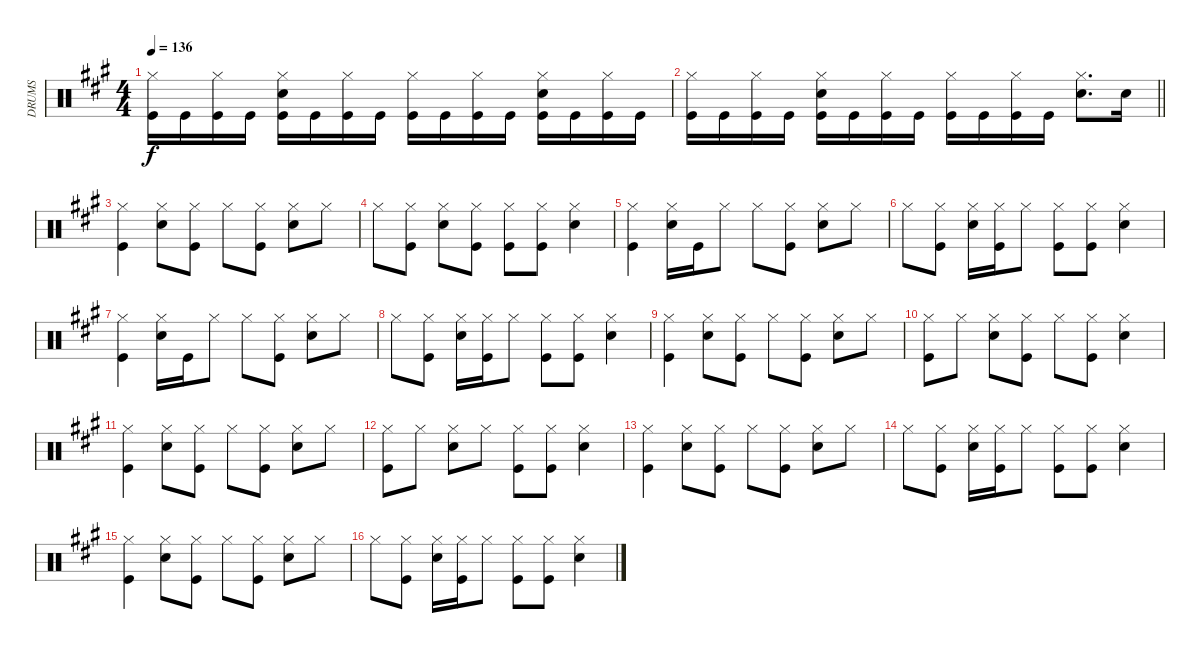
\track ("DRUMS" "DRUMS") {instrument percussion}
\staff {score}
\articulation defaults
\ts (4 4)
\tempo 136
\clef neutral
\ks f#minor
("Hi-Hat (closed)" "Kick (hit)").16{dy f} "Kick (hit)".16 ("Hi-Hat (closed)" "Kick (hit)").16 "Kick (hit)".16 ("Hi-Hat (closed)" "Kick (hit)" "Snare (hit) 2").16 "Kick (hit)".16 ("Hi-Hat (closed)" "Kick (hit)").16 "Kick (hit)".16 ("Hi-Hat (closed)" "Kick (hit)").16 "Kick (hit)".16 ("Hi-Hat (closed)" "Kick (hit)").16 "Kick (hit)".16 ("Hi-Hat (closed)" "Kick (hit)" "Snare (hit) 2").16 "Kick (hit)".16 ("Hi-Hat (closed)" "Kick (hit)").16 "Kick (hit)".16 |
\barLineRight lightlight
("Hi-Hat (closed)" "Kick (hit)").16 "Kick (hit)".16 ("Hi-Hat (closed)" "Kick (hit)").16 "Kick (hit)".16 ("Hi-Hat (closed)" "Kick (hit)" "Snare (hit) 2").16 "Kick (hit)".16 ("Hi-Hat (closed)" "Kick (hit)").16 "Kick (hit)".16 ("Hi-Hat (closed)" "Kick (hit)").16 "Kick (hit)".16 ("Hi-Hat (closed)" "Kick (hit)").16 "Kick (hit)".16 ("Hi-Hat (closed)" "Snare (hit) 2").8{d} "Snare (hit) 2".16 |
("Hi-Hat (closed)" "Kick (hit)").4 ("Hi-Hat (closed)" "Snare (hit) 2").8 ("Hi-Hat (closed)" "Kick (hit)").8 "Hi-Hat (closed)".8 ("Hi-Hat (closed)" "Kick (hit)").8 ("Hi-Hat (closed)" "Snare (hit) 2").8 "Hi-Hat (closed)".8 |
"Hi-Hat (closed)".8 ("Hi-Hat (closed)" "Kick (hit)").8 ("Hi-Hat (closed)" "Snare (hit) 2").8 ("Hi-Hat (closed)" "Kick (hit)").8 ("Hi-Hat (closed)" "Kick (hit)").8 ("Hi-Hat (closed)" "Kick (hit)").8 ("Hi-Hat (closed)" "Snare (hit) 2").4 |
("Hi-Hat (closed)" "Kick (hit)").4 ("Hi-Hat (closed)" "Snare (hit) 2").16 "Kick (hit)".16 "Hi-Hat (closed)".8 "Hi-Hat (closed)".8 ("Hi-Hat (closed)" "Kick (hit)").8 ("Hi-Hat (closed)" "Snare (hit) 2").8 "Hi-Hat (closed)".8 |
"Hi-Hat (closed)".8 ("Hi-Hat (closed)" "Kick (hit)").8 ("Hi-Hat (closed)" "Snare (hit) 2").16 ("Hi-Hat (closed)" "Kick (hit)").16 "Hi-Hat (closed)".8 ("Hi-Hat (closed)" "Kick (hit)").8 ("Hi-Hat (closed)" "Kick (hit)").8 ("Hi-Hat (closed)" "Snare (hit) 2").4 |
("Hi-Hat (closed)" "Kick (hit)").4 ("Hi-Hat (closed)" "Snare (hit) 2").16 "Kick (hit)".16 "Hi-Hat (closed)".8 "Hi-Hat (closed)".8 ("Hi-Hat (closed)" "Kick (hit)").8 ("Hi-Hat (closed)" "Snare (hit) 2").8 "Hi-Hat (closed)".8 |
"Hi-Hat (closed)".8 ("Hi-Hat (closed)" "Kick (hit)").8 ("Hi-Hat (closed)" "Snare (hit) 2").16 ("Hi-Hat (closed)" "Kick (hit)").16 "Hi-Hat (closed)".8 ("Hi-Hat (closed)" "Kick (hit)").8 ("Hi-Hat (closed)" "Kick (hit)").8 ("Hi-Hat (closed)" "Snare (hit) 2").4 |
("Hi-Hat (closed)" "Kick (hit)").4 ("Hi-Hat (closed)" "Snare (hit) 2").8 ("Hi-Hat (closed)" "Kick (hit)").8 "Hi-Hat (closed)".8 ("Hi-Hat (closed)" "Kick (hit)").8 ("Hi-Hat (closed)" "Snare (hit) 2").8 "Hi-Hat (closed)".8 |
("Hi-Hat (closed)" "Kick (hit)").8 "Hi-Hat (closed)".8 ("Hi-Hat (closed)" "Snare (hit) 2").8 ("Hi-Hat (closed)" "Kick (hit)").8 "Hi-Hat (closed)".8 ("Hi-Hat (closed)" "Kick (hit)").8 ("Hi-Hat (closed)" "Snare (hit) 2").4 |
("Hi-Hat (closed)" "Kick (hit)").4 ("Hi-Hat (closed)" "Snare (hit) 2").8 ("Hi-Hat (closed)" "Kick (hit)").8 "Hi-Hat (closed)".8 ("Hi-Hat (closed)" "Kick (hit)").8 ("Hi-Hat (closed)" "Snare (hit) 2").8 "Hi-Hat (closed)".8 |
("Hi-Hat (closed)" "Kick (hit)").8 "Hi-Hat (closed)".8 ("Hi-Hat (closed)" "Snare (hit) 2").8 "Hi-Hat (closed)".8 ("Hi-Hat (closed)" "Kick (hit)").8 ("Hi-Hat (closed)" "Kick (hit)").8 ("Hi-Hat (closed)" "Snare (hit) 2").4 |
("Hi-Hat (closed)" "Kick (hit)").4 ("Hi-Hat (closed)" "Snare (hit) 2").8 ("Hi-Hat (closed)" "Kick (hit)").8 "Hi-Hat (closed)".8 ("Hi-Hat (closed)" "Kick (hit)").8 ("Hi-Hat (closed)" "Snare (hit) 2").8 "Hi-Hat (closed)".8 |
"Hi-Hat (closed)".8 ("Hi-Hat (closed)" "Kick (hit)").8 ("Hi-Hat (closed)" "Snare (hit) 2").16 ("Hi-Hat (closed)" "Kick (hit)").16 "Hi-Hat (closed)".8 ("Hi-Hat (closed)" "Kick (hit)").8 ("Hi-Hat (closed)" "Kick (hit)").8 ("Hi-Hat (closed)" "Snare (hit) 2").4 |
("Hi-Hat (closed)" "Kick (hit)").4 ("Hi-Hat (closed)" "Snare (hit) 2").8 ("Hi-Hat (closed)" "Kick (hit)").8 "Hi-Hat (closed)".8 ("Hi-Hat (closed)" "Kick (hit)").8 ("Hi-Hat (closed)" "Snare (hit) 2").8 "Hi-Hat (closed)".8 |
"Hi-Hat (closed)".8 ("Hi-Hat (closed)" "Kick (hit)").8 ("Hi-Hat (closed)" "Snare (hit) 2").16 ("Hi-Hat (closed)" "Kick (hit)").16 "Hi-Hat (closed)".8 ("Hi-Hat (closed)" "Kick (hit)").8 ("Hi-Hat (closed)" "Kick (hit)").8 ("Hi-Hat (closed)" "Snare (hit) 2").4
